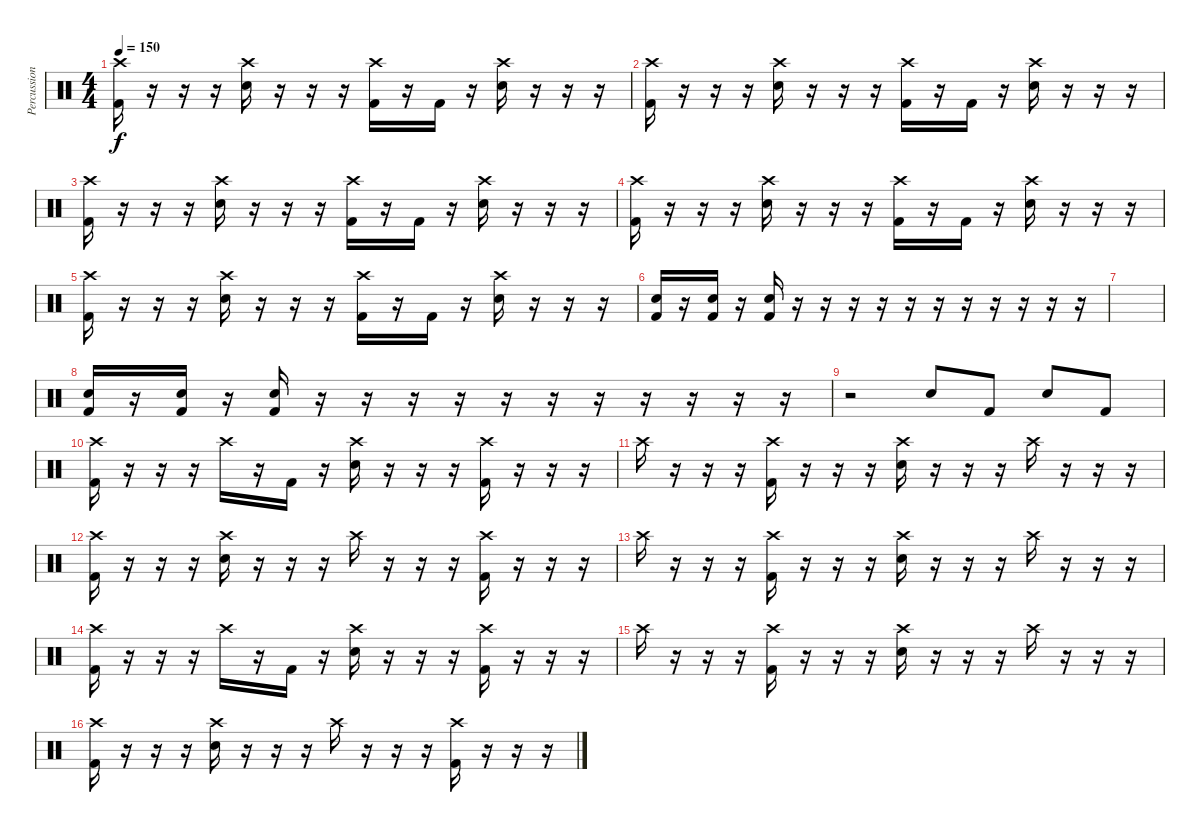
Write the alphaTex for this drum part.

\track ("Percussion" "Percussion") {instrument percussion}
\staff {score}
\articulation defaults
\ts (4 4)
\tempo 150
\clef neutral
\ks c
("Crash high (hit)" "Kick (hit) 2").16{dy f} r.16 r.16 r.16 ("Crash high (hit)" "Electric Snare (hit)").16 r.16 r.16 r.16 ("Crash high (hit)" "Kick (hit) 2").16 r.16 "Kick (hit) 2".16 r.16 ("Crash high (hit)" "Electric Snare (hit)").16 r.16 r.16 r.16 |
("Crash high (hit)" "Kick (hit) 2").16 r.16 r.16 r.16 ("Crash high (hit)" "Electric Snare (hit)").16 r.16 r.16 r.16 ("Crash high (hit)" "Kick (hit) 2").16 r.16 "Kick (hit) 2".16 r.16 ("Crash high (hit)" "Electric Snare (hit)").16 r.16 r.16 r.16 |
("Crash high (hit)" "Kick (hit) 2").16 r.16 r.16 r.16 ("Crash high (hit)" "Electric Snare (hit)").16 r.16 r.16 r.16 ("Crash high (hit)" "Kick (hit) 2").16 r.16 "Kick (hit) 2".16 r.16 ("Crash high (hit)" "Electric Snare (hit)").16 r.16 r.16 r.16 |
("Crash high (hit)" "Kick (hit) 2").16 r.16 r.16 r.16 ("Crash high (hit)" "Electric Snare (hit)").16 r.16 r.16 r.16 ("Crash high (hit)" "Kick (hit) 2").16 r.16 "Kick (hit) 2".16 r.16 ("Crash high (hit)" "Electric Snare (hit)").16 r.16 r.16 r.16 |
("Crash high (hit)" "Kick (hit) 2").16 r.16 r.16 r.16 ("Crash high (hit)" "Electric Snare (hit)").16 r.16 r.16 r.16 ("Crash high (hit)" "Kick (hit) 2").16 r.16 "Kick (hit) 2".16 r.16 ("Crash high (hit)" "Electric Snare (hit)").16 r.16 r.16 r.16 |
("Electric Snare (hit)" "Kick (hit) 2").16 r.16 ("Electric Snare (hit)" "Kick (hit) 2").16 r.16 ("Electric Snare (hit)" "Kick (hit) 2").16 r.16 r.16 r.16 r.16 r.16 r.16 r.16 r.16 r.16 r.16 r.16 |
|
("Electric Snare (hit)" "Kick (hit) 2").16 r.16 ("Electric Snare (hit)" "Kick (hit) 2").16 r.16 ("Electric Snare (hit)" "Kick (hit) 2").16 r.16 r.16 r.16 r.16 r.16 r.16 r.16 r.16 r.16 r.16 r.16 |
r.2 "Electric Snare (hit)".8 "Kick (hit) 2".8 "Electric Snare (hit)".8 "Kick (hit) 2".8 |
("Crash high (hit)" "Kick (hit) 2").16 r.16 r.16 r.16 "Crash high (hit)".16 r.16 "Kick (hit) 2".16 r.16 ("Crash high (hit)" "Electric Snare (hit)").16 r.16 r.16 r.16 ("Crash high (hit)" "Kick (hit) 2").16 r.16 r.16 r.16 |
"Crash high (hit)".16 r.16 r.16 r.16 ("Crash high (hit)" "Kick (hit) 2").16 r.16 r.16 r.16 ("Crash high (hit)" "Electric Snare (hit)").16 r.16 r.16 r.16 "Crash high (hit)".16 r.16 r.16 r.16 |
("Crash high (hit)" "Kick (hit) 2").16 r.16 r.16 r.16 ("Crash high (hit)" "Electric Snare (hit)").16 r.16 r.16 r.16 "Crash high (hit)".16 r.16 r.16 r.16 ("Crash high (hit)" "Kick (hit) 2").16 r.16 r.16 r.16 |
"Crash high (hit)".16 r.16 r.16 r.16 ("Crash high (hit)" "Kick (hit) 2").16 r.16 r.16 r.16 ("Crash high (hit)" "Electric Snare (hit)").16 r.16 r.16 r.16 "Crash high (hit)".16 r.16 r.16 r.16 |
("Crash high (hit)" "Kick (hit) 2").16 r.16 r.16 r.16 "Crash high (hit)".16 r.16 "Kick (hit) 2".16 r.16 ("Crash high (hit)" "Electric Snare (hit)").16 r.16 r.16 r.16 ("Crash high (hit)" "Kick (hit) 2").16 r.16 r.16 r.16 |
"Crash high (hit)".16 r.16 r.16 r.16 ("Crash high (hit)" "Kick (hit) 2").16 r.16 r.16 r.16 ("Crash high (hit)" "Electric Snare (hit)").16 r.16 r.16 r.16 "Crash high (hit)".16 r.16 r.16 r.16 |
("Crash high (hit)" "Kick (hit) 2").16 r.16 r.16 r.16 ("Crash high (hit)" "Electric Snare (hit)").16 r.16 r.16 r.16 "Crash high (hit)".16 r.16 r.16 r.16 ("Crash high (hit)" "Kick (hit) 2").16 r.16 r.16 r.16
